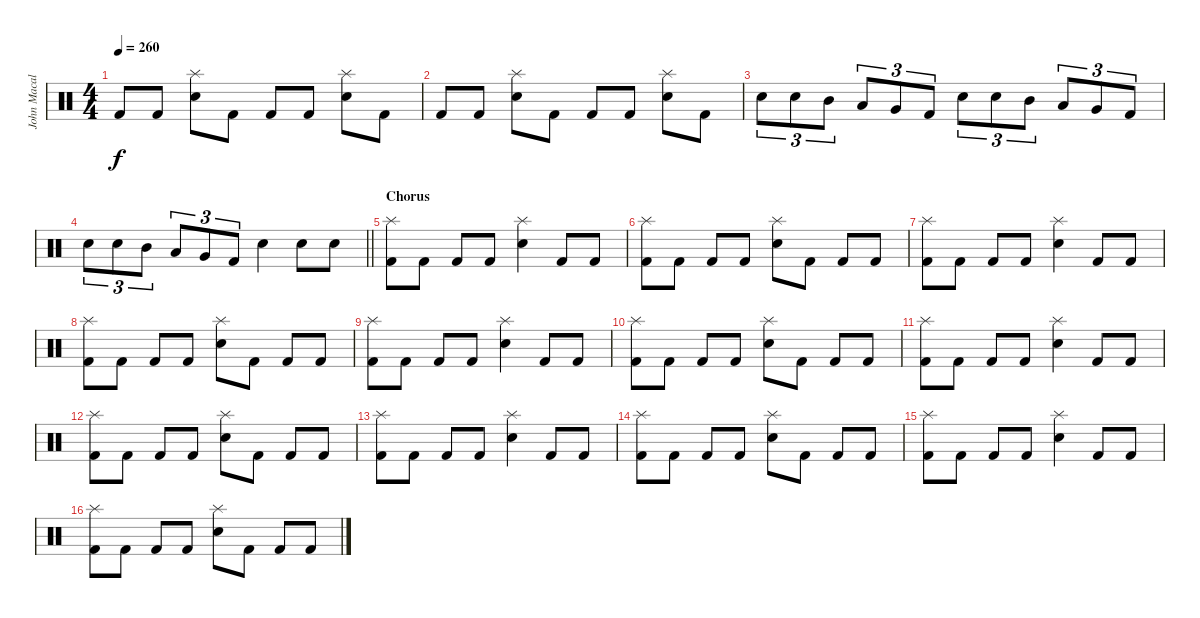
\track ("John Macaluso" "John Macal") {instrument percussion}
\staff {score}
\articulation defaults
\ts (4 4)
\tempo 260
\clef neutral
\ks c "Kick (hit) 2".8{dy f} "Kick (hit) 2".8
("Splash (hit)" "Snare (hit) 2").8 "Kick (hit) 2".8 "Kick (hit) 2".8 "Kick (hit) 2".8 ("Splash (hit)" "Snare (hit) 2").8 "Kick (hit) 2".8 |
"Kick (hit) 2".8 "Kick (hit) 2".8 ("Splash (hit)" "Snare (hit) 2").8 "Kick (hit) 2".8 "Kick (hit) 2".8 "Kick (hit) 2".8 ("Splash (hit)" "Snare (hit) 2").8 "Kick (hit) 2".8 |
"Snare (hit) 2".8{tu (3 2)} "Snare (hit) 2".8{tu (3 2)} "Mid Tom (hit)".8{tu (3 2)} "Low Tom (hit)".8{tu (3 2)} "Very Low Tom (hit)".8{tu (3 2)} "Kick (hit) 2".8{tu (3 2)} "Snare (hit) 2".8{tu (3 2)} "Snare (hit) 2".8{tu (3 2)} "Mid Tom (hit)".8{tu (3 2)} "Low Tom (hit)".8{tu (3 2)} "Very Low Tom (hit)".8{tu (3 2)} "Kick (hit) 2".8{tu (3 2)} |
\barLineRight lightlight "Snare (hit) 2".8{tu (3 2)} "Snare (hit) 2".8{tu (3 2)} "Mid Tom (hit)".8{tu (3 2)} "Low Tom (hit)".8{tu (3 2)} "Very Low Tom (hit)".8{tu (3 2)} "Kick (hit) 2".8{tu (3 2)} "Snare (hit) 2".4 "Snare (hit) 2".8 "Snare (hit) 2".8
|
\section ("" "Chorus")
("Splash (hit)" "Kick (hit) 2").8 "Kick (hit) 2".8 "Kick (hit) 2".8 "Kick (hit) 2".8 ("Splash (hit)" "Snare (hit) 2").4 "Kick (hit) 2".8 "Kick (hit) 2".8 |
("Splash (hit)" "Kick (hit) 2").8 "Kick (hit) 2".8 "Kick (hit) 2".8 "Kick (hit) 2".8 ("Splash (hit)" "Snare (hit) 2").8 "Kick (hit) 2".8 "Kick (hit) 2".8 "Kick (hit) 2".8 |
("Splash (hit)" "Kick (hit) 2").8 "Kick (hit) 2".8 "Kick (hit) 2".8 "Kick (hit) 2".8 ("Splash (hit)" "Snare (hit) 2").4 "Kick (hit) 2".8 "Kick (hit) 2".8 |
("Splash (hit)" "Kick (hit) 2").8 "Kick (hit) 2".8 "Kick (hit) 2".8 "Kick (hit) 2".8 ("Splash (hit)" "Snare (hit) 2").8 "Kick (hit) 2".8 "Kick (hit) 2".8 "Kick (hit) 2".8 |
("Splash (hit)" "Kick (hit) 2").8 "Kick (hit) 2".8 "Kick (hit) 2".8 "Kick (hit) 2".8 ("Splash (hit)" "Snare (hit) 2").4 "Kick (hit) 2".8 "Kick (hit) 2".8 |
("Splash (hit)" "Kick (hit) 2").8 "Kick (hit) 2".8 "Kick (hit) 2".8 "Kick (hit) 2".8 ("Splash (hit)" "Snare (hit) 2").8 "Kick (hit) 2".8 "Kick (hit) 2".8 "Kick (hit) 2".8 |
("Splash (hit)" "Kick (hit) 2").8 "Kick (hit) 2".8 "Kick (hit) 2".8 "Kick (hit) 2".8 ("Splash (hit)" "Snare (hit) 2").4 "Kick (hit) 2".8 "Kick (hit) 2".8 |
("Splash (hit)" "Kick (hit) 2").8 "Kick (hit) 2".8 "Kick (hit) 2".8 "Kick (hit) 2".8 ("Splash (hit)" "Snare (hit) 2").8 "Kick (hit) 2".8 "Kick (hit) 2".8 "Kick (hit) 2".8 |
("Splash (hit)" "Kick (hit) 2").8 "Kick (hit) 2".8 "Kick (hit) 2".8 "Kick (hit) 2".8 ("Splash (hit)" "Snare (hit) 2").4 "Kick (hit) 2".8 "Kick (hit) 2".8 |
("Splash (hit)" "Kick (hit) 2").8 "Kick (hit) 2".8 "Kick (hit) 2".8 "Kick (hit) 2".8 ("Splash (hit)" "Snare (hit) 2").8 "Kick (hit) 2".8 "Kick (hit) 2".8 "Kick (hit) 2".8 |
("Splash (hit)" "Kick (hit) 2").8 "Kick (hit) 2".8 "Kick (hit) 2".8 "Kick (hit) 2".8 ("Splash (hit)" "Snare (hit) 2").4 "Kick (hit) 2".8 "Kick (hit) 2".8 |
("Splash (hit)" "Kick (hit) 2").8 "Kick (hit) 2".8 "Kick (hit) 2".8 "Kick (hit) 2".8 ("Splash (hit)" "Snare (hit) 2").8 "Kick (hit) 2".8 "Kick (hit) 2".8 "Kick (hit) 2".8
